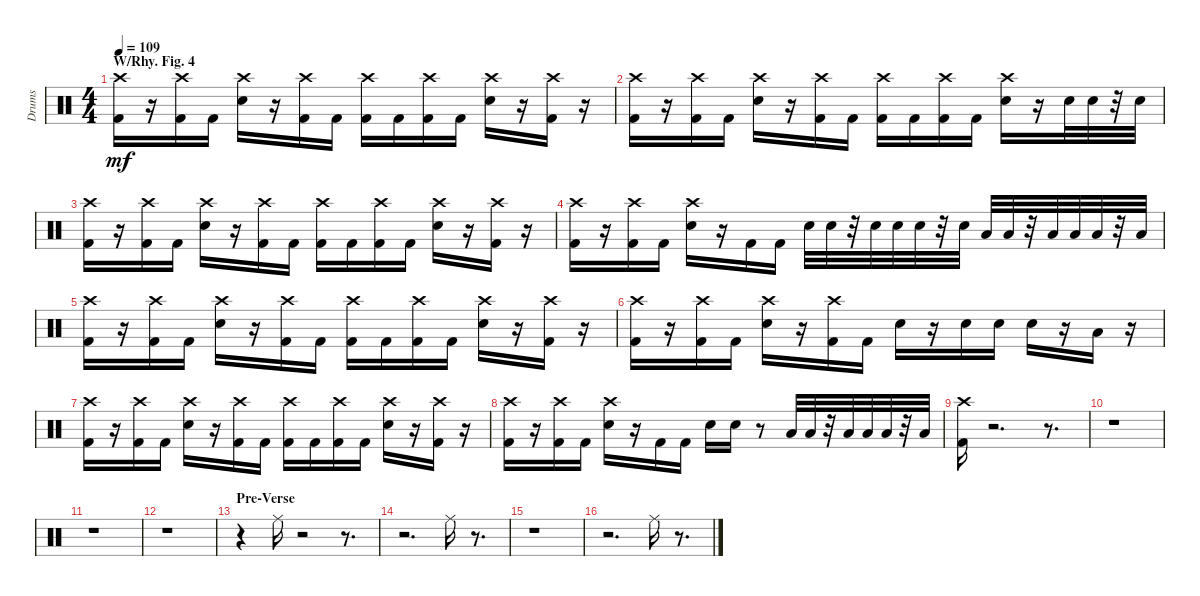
\track ("Drums" "Drums") {instrument percussion}
\staff {score}
\articulation defaults
\ts (4 4)
\section ("" "W/Rhy. Fig. 4")
\tempo 109
\clef neutral
\ks c
("Crash high (hit)" "Kick (hit) 2").16{dy mf} r.16 ("Kick (hit) 2" "Crash high (hit)").16 "Kick (hit) 2".16 ("Crash high (hit)" "Snare (hit) 2").16 r.16 ("Kick (hit) 2" "Crash high (hit)").16 "Kick (hit) 2".16 ("Crash high (hit)" "Kick (hit) 2").16 "Kick (hit) 2".16 ("Kick (hit) 2" "Crash high (hit)").16 "Kick (hit) 2".16 ("Crash high (hit)" "Snare (hit) 2").16 r.16 ("Kick (hit) 2" "Crash high (hit)").16 r.16 |
("Crash high (hit)" "Kick (hit) 2").16 r.16 ("Kick (hit) 2" "Crash high (hit)").16 "Kick (hit) 2".16 ("Crash high (hit)" "Snare (hit) 2").16 r.16 ("Kick (hit) 2" "Crash high (hit)").16 "Kick (hit) 2".16 ("Crash high (hit)" "Kick (hit) 2").16 "Kick (hit) 2".16 ("Kick (hit) 2" "Crash high (hit)").16 "Kick (hit) 2".16 ("Snare (hit) 2" "Crash high (hit)").16 r.16 "Snare (hit) 2".32 "Snare (hit) 2".32 r.32 "Snare (hit) 2".32 |
("Crash high (hit)" "Kick (hit) 2").16 r.16 ("Kick (hit) 2" "Crash high (hit)").16 "Kick (hit) 2".16 ("Crash high (hit)" "Snare (hit) 2").16 r.16 ("Kick (hit) 2" "Crash high (hit)").16 "Kick (hit) 2".16 ("Crash high (hit)" "Kick (hit) 2").16 "Kick (hit) 2".16 ("Kick (hit) 2" "Crash high (hit)").16 "Kick (hit) 2".16 ("Crash high (hit)" "Snare (hit) 2").16 r.16 ("Kick (hit) 2" "Crash high (hit)").16 r.16 |
("Crash high (hit)" "Kick (hit) 2").16 r.16 ("Kick (hit) 2" "Crash high (hit)").16 "Kick (hit) 2".16 ("Snare (hit) 2" "Crash high (hit)").16 r.16 "Kick (hit) 2".16 "Kick (hit) 2".16 "Snare (hit) 2".32 "Snare (hit) 2".32 r.32 "Snare (hit) 2".32 "Snare (hit) 2".32 "Snare (hit) 2".32 r.32 "Snare (hit) 2".32 "Low Tom (hit)".32 "Low Tom (hit)".32 r.32 "Low Tom (hit)".32 "Low Floor Tom (hit)".32 "Low Floor Tom (hit)".32 r.32 "Low Floor Tom (hit)".32 |
("Crash high (hit)" "Kick (hit) 2").16 r.16 ("Kick (hit) 2" "Crash high (hit)").16 "Kick (hit) 2".16 ("Crash high (hit)" "Snare (hit) 2").16 r.16 ("Kick (hit) 2" "Crash high (hit)").16 "Kick (hit) 2".16 ("Crash high (hit)" "Kick (hit) 2").16 "Kick (hit) 2".16 ("Kick (hit) 2" "Crash high (hit)").16 "Kick (hit) 2".16 ("Crash high (hit)" "Snare (hit) 2").16 r.16 ("Kick (hit) 2" "Crash high (hit)").16 r.16 |
("Crash high (hit)" "Kick (hit) 2").16 r.16 ("Kick (hit) 2" "Crash high (hit)").16 "Kick (hit) 2".16 ("Crash high (hit)" "Snare (hit) 2").16 r.16 ("Kick (hit) 2" "Crash high (hit)").16 "Kick (hit) 2".16 "Snare (hit) 2".16 r.16 "Snare (hit) 2".16 "Snare (hit) 2".16 "Snare (hit) 2".16 r.16 "Low Floor Tom (hit)".16 r.16 |
("Crash high (hit)" "Kick (hit) 2").16 r.16 ("Kick (hit) 2" "Crash high (hit)").16 "Kick (hit) 2".16 ("Crash high (hit)" "Snare (hit) 2").16 r.16 ("Kick (hit) 2" "Crash high (hit)").16 "Kick (hit) 2".16 ("Crash high (hit)" "Kick (hit) 2").16 "Kick (hit) 2".16 ("Kick (hit) 2" "Crash high (hit)").16 "Kick (hit) 2".16 ("Crash high (hit)" "Snare (hit) 2").16 r.16 ("Kick (hit) 2" "Crash high (hit)").16 r.16 |
("Crash high (hit)" "Kick (hit) 2").16 r.16 ("Kick (hit) 2" "Crash high (hit)").16 "Kick (hit) 2".16 ("Crash high (hit)" "Snare (hit) 2").16 r.16 "Kick (hit) 2".16 "Kick (hit) 2".16 "Snare (hit) 2".16 "Snare (hit) 2".16 r.8 "Low Tom (hit)".32 "Low Tom (hit)".32 r.32 "Low Tom (hit)".32 "Low Floor Tom (hit)".32 "Low Floor Tom (hit)".32 r.32 "Low Floor Tom (hit)".32 |
("Kick (hit) 2" "Crash high (hit)").16 r.2{d} r.8{d} |
r.1 |
r.1 |
r.1 |
\section ("" "Pre-Verse")
r.4 "Ride (middle)".16 r.2 r.8{d} |
r.2{d} "Ride (middle)".16 r.8{d} |
r.1 |
r.2{d} "Ride (middle)".16 r.8{d}
